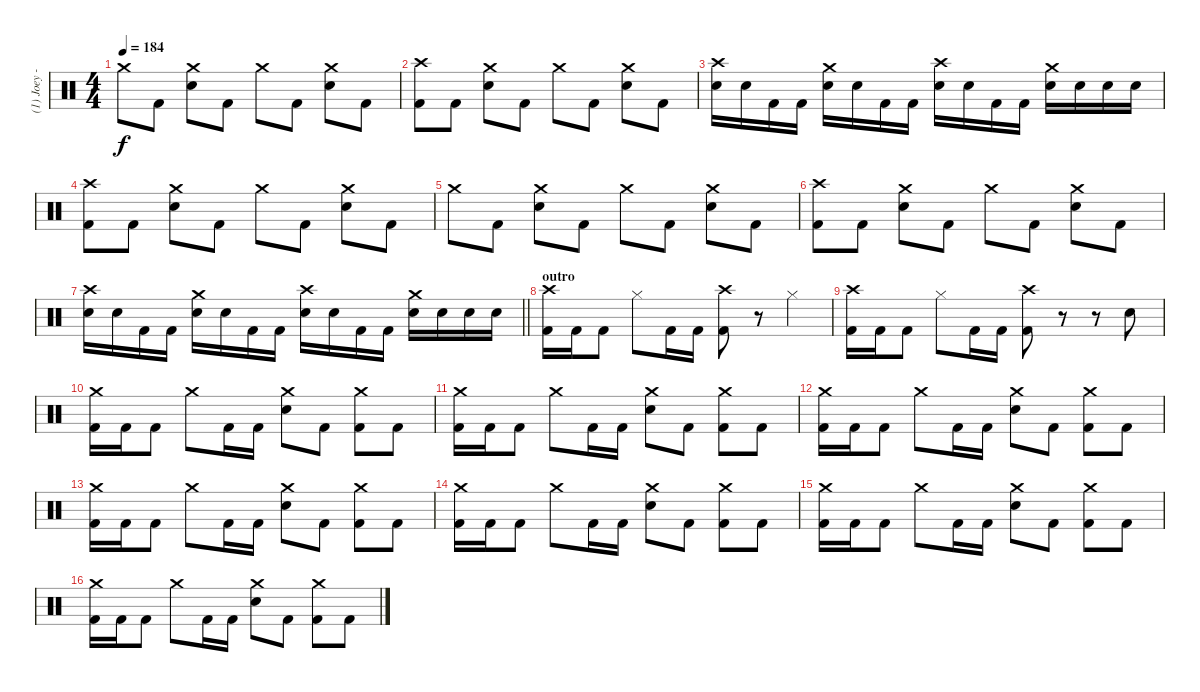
\track ("(1) Joey - drums" "(1) Joey -") {instrument percussion}
\staff {score}
\articulation defaults
\ts (4 4)
\tempo 184
\clef neutral
\ks c "Crash medium (hit)".8{dy f} "Kick (hit) 2".8
("Crash medium (hit)" "Electric Snare (hit)").8 "Kick (hit) 2".8 "Crash medium (hit)".8 "Kick (hit) 2".8 ("Crash medium (hit)" "Electric Snare (hit)").8 "Kick (hit) 2".8 |
("Crash high (hit)" "Kick (hit) 2").8 "Kick (hit) 2".8 ("Crash medium (hit)" "Electric Snare (hit)").8 "Kick (hit) 2".8 "Crash medium (hit)".8 "Kick (hit) 2".8 ("Crash medium (hit)" "Electric Snare (hit)").8 "Kick (hit) 2".8 |
("Crash high (hit)" "Electric Snare (hit)").16 "Electric Snare (hit)".16 "Kick (hit) 2".16 "Kick (hit) 2".16 ("Crash medium (hit)" "Electric Snare (hit)").16 "Electric Snare (hit)".16 "Kick (hit) 2".16 "Kick (hit) 2".16 ("Crash high (hit)" "Electric Snare (hit)").16 "Electric Snare (hit)".16 "Kick (hit) 2".16 "Kick (hit) 2".16 ("Crash medium (hit)" "Electric Snare (hit)").16 "Electric Snare (hit)".16 "Electric Snare (hit)".16 "Electric Snare (hit)".16 |
("Crash high (hit)" "Kick (hit) 2").8 "Kick (hit) 2".8 ("Crash medium (hit)" "Electric Snare (hit)").8 "Kick (hit) 2".8 "Crash medium (hit)".8 "Kick (hit) 2".8 ("Crash medium (hit)" "Electric Snare (hit)").8 "Kick (hit) 2".8 |
"Crash medium (hit)".8 "Kick (hit) 2".8 ("Crash medium (hit)" "Electric Snare (hit)").8 "Kick (hit) 2".8 "Crash medium (hit)".8 "Kick (hit) 2".8 ("Crash medium (hit)" "Electric Snare (hit)").8 "Kick (hit) 2".8 |
("Crash high (hit)" "Kick (hit) 2").8 "Kick (hit) 2".8 ("Crash medium (hit)" "Electric Snare (hit)").8 "Kick (hit) 2".8 "Crash medium (hit)".8 "Kick (hit) 2".8 ("Crash medium (hit)" "Electric Snare (hit)").8 "Kick (hit) 2".8 |
\barLineRight lightlight
("Crash high (hit)" "Electric Snare (hit)").16 "Electric Snare (hit)".16 "Kick (hit) 2".16 "Kick (hit) 2".16 ("Crash medium (hit)" "Electric Snare (hit)").16 "Electric Snare (hit)".16 "Kick (hit) 2".16 "Kick (hit) 2".16 ("Crash high (hit)" "Electric Snare (hit)").16 "Electric Snare (hit)".16 "Kick (hit) 2".16 "Kick (hit) 2".16 ("Crash medium (hit)" "Electric Snare (hit)").16 "Electric Snare (hit)".16 "Electric Snare (hit)".16 "Electric Snare (hit)".16 |
\section ("" "outro")
("Crash high (hit)" "Kick (hit) 2").16 "Kick (hit) 2".16 "Kick (hit) 2".8 "Hi-Hat (closed)".8 "Kick (hit) 2".16 "Kick (hit) 2".16 ("Crash high (hit)" "Kick (hit) 2").8 r.8 "Hi-Hat (closed)".4 |
("Crash high (hit)" "Kick (hit) 2").16 "Kick (hit) 2".16 "Kick (hit) 2".8 "Hi-Hat (closed)".8 "Kick (hit) 2".16 "Kick (hit) 2".16 ("Crash high (hit)" "Kick (hit) 2").8 r.8 r.8 "Electric Snare (hit)".8 |
("Crash medium (hit)" "Kick (hit) 2").16 "Kick (hit) 2".16 "Kick (hit) 2".8 "Crash medium (hit)".8 "Kick (hit) 2".16 "Kick (hit) 2".16 ("Crash medium (hit)" "Electric Snare (hit)").8 "Kick (hit) 2".8 ("Crash medium (hit)" "Kick (hit) 2").8 "Kick (hit) 2".8 |
("Crash medium (hit)" "Kick (hit) 2").16 "Kick (hit) 2".16 "Kick (hit) 2".8 "Crash medium (hit)".8 "Kick (hit) 2".16 "Kick (hit) 2".16 ("Crash medium (hit)" "Electric Snare (hit)").8 "Kick (hit) 2".8 ("Crash medium (hit)" "Kick (hit) 2").8 "Kick (hit) 2".8 |
("Crash medium (hit)" "Kick (hit) 2").16 "Kick (hit) 2".16 "Kick (hit) 2".8 "Crash medium (hit)".8 "Kick (hit) 2".16 "Kick (hit) 2".16 ("Crash medium (hit)" "Electric Snare (hit)").8 "Kick (hit) 2".8 ("Crash medium (hit)" "Kick (hit) 2").8 "Kick (hit) 2".8 |
("Crash medium (hit)" "Kick (hit) 2").16 "Kick (hit) 2".16 "Kick (hit) 2".8 "Crash medium (hit)".8 "Kick (hit) 2".16 "Kick (hit) 2".16 ("Crash medium (hit)" "Electric Snare (hit)").8 "Kick (hit) 2".8 ("Crash medium (hit)" "Kick (hit) 2").8 "Kick (hit) 2".8 |
("Crash medium (hit)" "Kick (hit) 2").16 "Kick (hit) 2".16 "Kick (hit) 2".8 "Crash medium (hit)".8 "Kick (hit) 2".16 "Kick (hit) 2".16 ("Crash medium (hit)" "Electric Snare (hit)").8 "Kick (hit) 2".8 ("Crash medium (hit)" "Kick (hit) 2").8 "Kick (hit) 2".8 |
("Crash medium (hit)" "Kick (hit) 2").16 "Kick (hit) 2".16 "Kick (hit) 2".8 "Crash medium (hit)".8 "Kick (hit) 2".16 "Kick (hit) 2".16 ("Crash medium (hit)" "Electric Snare (hit)").8 "Kick (hit) 2".8 ("Crash medium (hit)" "Kick (hit) 2").8 "Kick (hit) 2".8 |
("Crash medium (hit)" "Kick (hit) 2").16 "Kick (hit) 2".16 "Kick (hit) 2".8 "Crash medium (hit)".8 "Kick (hit) 2".16 "Kick (hit) 2".16 ("Crash medium (hit)" "Electric Snare (hit)").8 "Kick (hit) 2".8 ("Crash medium (hit)" "Kick (hit) 2").8 "Kick (hit) 2".8
